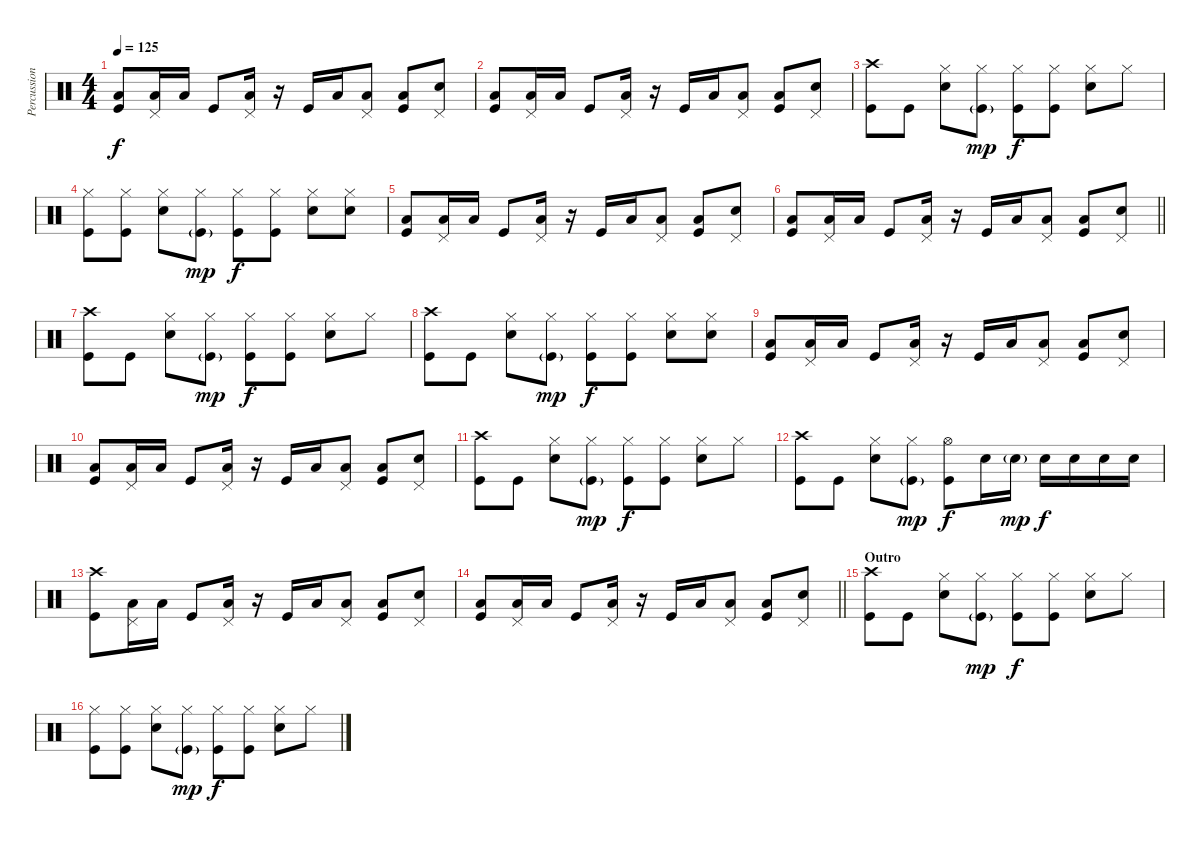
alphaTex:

\track ("Percussion" "Percussion") {instrument percussion}
\staff {score}
\articulation defaults
\ts (4 4)
\tempo 125
\clef neutral
\ks c
("Low Tom (hit)" "Kick (hit)").8{dy f} ("Low Tom (hit)" "Pedal Hi-Hat (hit)").16 "Low Tom (hit)".16 "Kick (hit)".8 ("Low Floor Tom (hit)" "Pedal Hi-Hat (hit)").16 r.16 "Kick (hit)".16 "Low Tom (hit)".16 ("Low Tom (hit)" "Pedal Hi-Hat (hit)").8 ("Low Tom (hit)" "Kick (hit)").8 ("Snare (hit) 2" "Pedal Hi-Hat (hit)").8 |
("Low Tom (hit)" "Kick (hit)").8 ("Low Tom (hit)" "Pedal Hi-Hat (hit)").16 "Low Tom (hit)".16 "Kick (hit)".8 ("Low Floor Tom (hit)" "Pedal Hi-Hat (hit)").16 r.16 "Kick (hit)".16 "Low Tom (hit)".16 ("Low Tom (hit)" "Pedal Hi-Hat (hit)").8 ("Low Tom (hit)" "Kick (hit)").8 ("Snare (hit) 2" "Pedal Hi-Hat (hit)").8 |
("Crash high (hit)" "Kick (hit)").8 "Kick (hit)".8 ("Hi-Hat (closed)" "Snare (hit) 2").8 ("Hi-Hat (closed)" "Kick (hit)"{g}).8{dy mp} ("Hi-Hat (closed)" "Kick (hit)").8{dy f} ("Hi-Hat (closed)" "Kick (hit)").8 ("Hi-Hat (closed)" "Snare (hit) 2").8 "Hi-Hat (closed)".8 |
("Hi-Hat (closed)" "Kick (hit)").8 ("Hi-Hat (closed)" "Kick (hit)").8 ("Hi-Hat (closed)" "Snare (hit) 2").8 ("Hi-Hat (closed)" "Kick (hit)"{g}).8{dy mp} ("Hi-Hat (closed)" "Kick (hit)").8{dy f} ("Hi-Hat (closed)" "Kick (hit)").8 ("Hi-Hat (closed)" "Snare (hit) 2").8 ("Hi-Hat (closed)" "Snare (hit) 2").8 |
("Low Tom (hit)" "Kick (hit)").8 ("Low Tom (hit)" "Pedal Hi-Hat (hit)").16 "Low Tom (hit)".16 "Kick (hit)".8 ("Low Floor Tom (hit)" "Pedal Hi-Hat (hit)").16 r.16 "Kick (hit)".16 "Low Tom (hit)".16 ("Low Tom (hit)" "Pedal Hi-Hat (hit)").8 ("Low Tom (hit)" "Kick (hit)").8 ("Snare (hit) 2" "Pedal Hi-Hat (hit)").8 |
\barLineRight lightlight
("Low Tom (hit)" "Kick (hit)").8 ("Low Tom (hit)" "Pedal Hi-Hat (hit)").16 "Low Tom (hit)".16 "Kick (hit)".8 ("Low Floor Tom (hit)" "Pedal Hi-Hat (hit)").16 r.16 "Kick (hit)".16 "Low Tom (hit)".16 ("Low Tom (hit)" "Pedal Hi-Hat (hit)").8 ("Low Tom (hit)" "Kick (hit)").8 ("Snare (hit) 2" "Pedal Hi-Hat (hit)").8 |
("Crash high (hit)" "Kick (hit)").8 "Kick (hit)".8 ("Hi-Hat (closed)" "Snare (hit) 2").8 ("Hi-Hat (closed)" "Kick (hit)"{g}).8{dy mp} ("Hi-Hat (closed)" "Kick (hit)").8{dy f} ("Hi-Hat (closed)" "Kick (hit)").8 ("Hi-Hat (closed)" "Snare (hit) 2").8 "Hi-Hat (closed)".8 |
("Crash high (hit)" "Kick (hit)").8 "Kick (hit)".8 ("Hi-Hat (closed)" "Snare (hit) 2").8 ("Hi-Hat (closed)" "Kick (hit)"{g}).8{dy mp} ("Hi-Hat (closed)" "Kick (hit)").8{dy f} ("Hi-Hat (closed)" "Kick (hit)").8 ("Hi-Hat (closed)" "Snare (hit) 2").8 ("Hi-Hat (closed)" "Snare (hit) 2").8 |
("Low Tom (hit)" "Kick (hit)").8 ("Low Tom (hit)" "Pedal Hi-Hat (hit)").16 "Low Tom (hit)".16 "Kick (hit)".8 ("Low Floor Tom (hit)" "Pedal Hi-Hat (hit)").16 r.16 "Kick (hit)".16 "Low Tom (hit)".16 ("Low Tom (hit)" "Pedal Hi-Hat (hit)").8 ("Low Tom (hit)" "Kick (hit)").8 ("Snare (hit) 2" "Pedal Hi-Hat (hit)").8 |
("Low Tom (hit)" "Kick (hit)").8 ("Low Tom (hit)" "Pedal Hi-Hat (hit)").16 "Low Tom (hit)".16 "Kick (hit)".8 ("Low Floor Tom (hit)" "Pedal Hi-Hat (hit)").16 r.16 "Kick (hit)".16 "Low Tom (hit)".16 ("Low Tom (hit)" "Pedal Hi-Hat (hit)").8 ("Low Tom (hit)" "Kick (hit)").8 ("Snare (hit) 2" "Pedal Hi-Hat (hit)").8 |
("Crash high (hit)" "Kick (hit)").8 "Kick (hit)".8 ("Hi-Hat (closed)" "Snare (hit) 2").8 ("Hi-Hat (closed)" "Kick (hit)"{g}).8{dy mp} ("Hi-Hat (closed)" "Kick (hit)").8{dy f} ("Hi-Hat (closed)" "Kick (hit)").8 ("Hi-Hat (closed)" "Snare (hit) 2").8 "Hi-Hat (closed)".8 |
("Crash high (hit)" "Kick (hit)").8 "Kick (hit)".8 ("Hi-Hat (closed)" "Snare (hit) 2").8 ("Hi-Hat (closed)" "Kick (hit)"{g}).8{dy mp} ("Hi-Hat (open)" "Kick (hit)").8{dy f} "Snare (hit) 2".16 "Snare (hit) 2"{g}.16{dy mp} "Snare (hit) 2".16{dy f} "Snare (hit) 2".16 "Snare (hit) 2".16 "Snare (hit) 2".16 |
("Crash high (hit)" "Kick (hit)").8 ("Low Tom (hit)" "Pedal Hi-Hat (hit)").16 "Low Tom (hit)".16 "Kick (hit)".8 ("Low Floor Tom (hit)" "Pedal Hi-Hat (hit)").16 r.16 "Kick (hit)".16 "Low Tom (hit)".16 ("Low Tom (hit)" "Pedal Hi-Hat (hit)").8 ("Low Tom (hit)" "Kick (hit)").8 ("Snare (hit) 2" "Pedal Hi-Hat (hit)").8 |
\barLineRight lightlight
("Low Tom (hit)" "Kick (hit)").8 ("Low Tom (hit)" "Pedal Hi-Hat (hit)").16 "Low Tom (hit)".16 "Kick (hit)".8 ("Low Floor Tom (hit)" "Pedal Hi-Hat (hit)").16 r.16 "Kick (hit)".16 "Low Tom (hit)".16 ("Low Tom (hit)" "Pedal Hi-Hat (hit)").8 ("Low Tom (hit)" "Kick (hit)").8 ("Snare (hit) 2" "Pedal Hi-Hat (hit)").8 |
\section ("" "Outro")
("Crash high (hit)" "Kick (hit)").8 "Kick (hit)".8 ("Hi-Hat (closed)" "Snare (hit) 2").8 ("Hi-Hat (closed)" "Kick (hit)"{g}).8{dy mp} ("Hi-Hat (closed)" "Kick (hit)").8{dy f} ("Hi-Hat (closed)" "Kick (hit)").8 ("Hi-Hat (closed)" "Snare (hit) 2").8 "Hi-Hat (closed)".8 |
("Hi-Hat (closed)" "Kick (hit)").8 ("Hi-Hat (closed)" "Kick (hit)").8 ("Hi-Hat (closed)" "Snare (hit) 2").8 ("Hi-Hat (closed)" "Kick (hit)"{g}).8{dy mp} ("Hi-Hat (closed)" "Kick (hit)").8{dy f} ("Hi-Hat (closed)" "Kick (hit)").8 ("Hi-Hat (closed)" "Snare (hit) 2").8 "Hi-Hat (closed)".8
